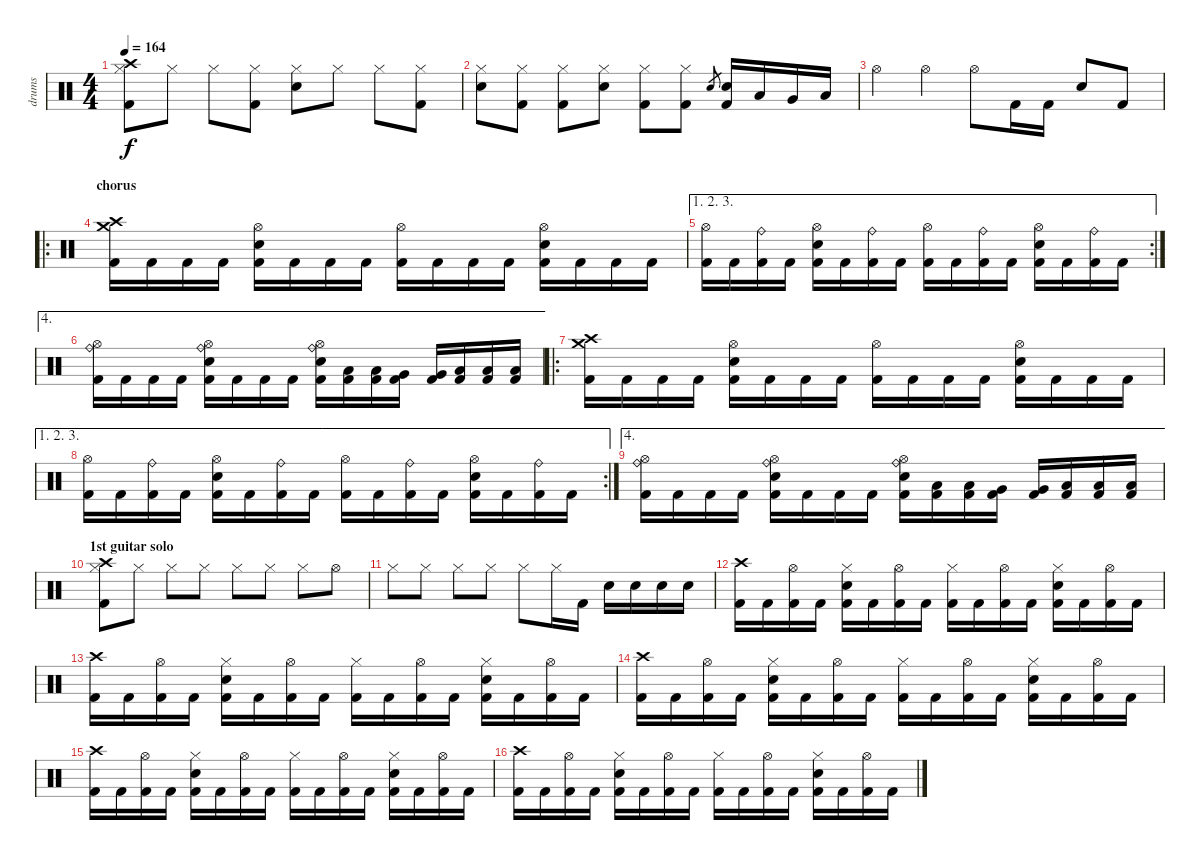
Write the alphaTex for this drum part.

\track ("drums" "drums") {instrument percussion}
\staff {score}
\articulation defaults
\ts (4 4)
\tempo 164
\clef neutral
\ks c
("Crash high (hit)" "Hi-Hat (closed)" "Kick (hit) 2").8{dy f} "Hi-Hat (closed)".8 "Hi-Hat (closed)".8 ("Hi-Hat (closed)" "Kick (hit) 2").8 ("Hi-Hat (closed)" "Electric Snare (hit)").8 "Hi-Hat (closed)".8 "Hi-Hat (closed)".8 ("Hi-Hat (closed)" "Kick (hit) 2").8 |
("Hi-Hat (closed)" "Electric Snare (hit)").8 ("Hi-Hat (closed)" "Kick (hit) 2").8 ("Hi-Hat (closed)" "Kick (hit) 2").8 ("Hi-Hat (closed)" "Electric Snare (hit)").8 ("Hi-Hat (closed)" "Kick (hit) 2").8 ("Hi-Hat (closed)" "Kick (hit) 2").8 "Electric Snare (hit)".8{gr} ("Electric Snare (hit)" "Kick (hit) 2").16 "Low Tom (hit)".16 "Very Low Tom (hit)".16 "Low Floor Tom (hit)".16 |
"Hi-Hat (open)".4 "Hi-Hat (open)".4 "Hi-Hat (open)".8 "Kick (hit) 2".16 "Kick (hit) 2".16 "Electric Snare (hit)".8 "Kick (hit) 2".8 |
\ro
\section ("" "chorus")
("Crash high (hit)" "Crash medium (hit)" "Kick (hit) 2").16 "Kick (hit) 2".16 "Kick (hit) 2".16 "Kick (hit) 2".16 ("Hi-Hat (open)" "Electric Snare (hit)" "Kick (hit) 2").16 "Kick (hit) 2".16 "Kick (hit) 2".16 "Kick (hit) 2".16 ("Hi-Hat (open)" "Kick (hit) 2").16 "Kick (hit) 2".16 "Kick (hit) 2".16 "Kick (hit) 2".16 ("Hi-Hat (open)" "Electric Snare (hit)" "Kick (hit) 2").16 "Kick (hit) 2".16 "Kick (hit) 2".16 "Kick (hit) 2".16 |
\ae (1 2 3)
\rc 2
("Hi-Hat (open)" "Kick (hit) 2").16 "Kick (hit) 2".16 ("Ride (bell)" "Kick (hit) 2").16 "Kick (hit) 2".16 ("Hi-Hat (open)" "Electric Snare (hit)" "Kick (hit) 2").16 "Kick (hit) 2".16 ("Ride (bell)" "Kick (hit) 2").16 "Kick (hit) 2".16 ("Hi-Hat (open)" "Kick (hit) 2").16 "Kick (hit) 2".16 ("Ride (bell)" "Kick (hit) 2").16 "Kick (hit) 2".16 ("Hi-Hat (open)" "Electric Snare (hit)" "Kick (hit) 2").16 "Kick (hit) 2".16 ("Ride (bell)" "Kick (hit) 2").16 "Kick (hit) 2".16 |
\ae 4
("Ride (bell)" "Hi-Hat (open)" "Kick (hit) 2").16 "Kick (hit) 2".16 "Kick (hit) 2".16 "Kick (hit) 2".16 ("Ride (bell)" "Hi-Hat (open)" "Electric Snare (hit)" "Kick (hit) 2").16 "Kick (hit) 2".16 "Kick (hit) 2".16 "Kick (hit) 2".16 ("Ride (bell)" "Hi-Hat (open)" "Electric Snare (hit)" "Kick (hit) 2").16 ("Low Tom (hit)" "Kick (hit) 2").16 ("Low Tom (hit)" "Kick (hit) 2").16 ("Very Low Tom (hit)" "Kick (hit) 2").16 ("Very Low Tom (hit)" "Kick (hit) 2").16 ("Low Floor Tom (hit)" "Kick (hit) 2").16 ("Low Floor Tom (hit)" "Kick (hit) 2").16 ("Low Floor Tom (hit)" "Kick (hit) 2").16 |
\ro
("Crash high (hit)" "Crash medium (hit)" "Kick (hit) 2").16 "Kick (hit) 2".16 "Kick (hit) 2".16 "Kick (hit) 2".16 ("Hi-Hat (open)" "Electric Snare (hit)" "Kick (hit) 2").16 "Kick (hit) 2".16 "Kick (hit) 2".16 "Kick (hit) 2".16 ("Hi-Hat (open)" "Kick (hit) 2").16 "Kick (hit) 2".16 "Kick (hit) 2".16 "Kick (hit) 2".16 ("Hi-Hat (open)" "Electric Snare (hit)" "Kick (hit) 2").16 "Kick (hit) 2".16 "Kick (hit) 2".16 "Kick (hit) 2".16 |
\ae (1 2 3)
\rc 2
("Hi-Hat (open)" "Kick (hit) 2").16 "Kick (hit) 2".16 ("Ride (bell)" "Kick (hit) 2").16 "Kick (hit) 2".16 ("Hi-Hat (open)" "Electric Snare (hit)" "Kick (hit) 2").16 "Kick (hit) 2".16 ("Ride (bell)" "Kick (hit) 2").16 "Kick (hit) 2".16 ("Hi-Hat (open)" "Kick (hit) 2").16 "Kick (hit) 2".16 ("Ride (bell)" "Kick (hit) 2").16 "Kick (hit) 2".16 ("Hi-Hat (open)" "Electric Snare (hit)" "Kick (hit) 2").16 "Kick (hit) 2".16 ("Ride (bell)" "Kick (hit) 2").16 "Kick (hit) 2".16 |
\ae 4
("Ride (bell)" "Hi-Hat (open)" "Kick (hit) 2").16 "Kick (hit) 2".16 "Kick (hit) 2".16 "Kick (hit) 2".16 ("Ride (bell)" "Hi-Hat (open)" "Electric Snare (hit)" "Kick (hit) 2").16 "Kick (hit) 2".16 "Kick (hit) 2".16 "Kick (hit) 2".16 ("Ride (bell)" "Hi-Hat (open)" "Electric Snare (hit)" "Kick (hit) 2").16 ("Low Tom (hit)" "Kick (hit) 2").16 ("Low Tom (hit)" "Kick (hit) 2").16 ("Very Low Tom (hit)" "Kick (hit) 2").16 ("Very Low Tom (hit)" "Kick (hit) 2").16 ("Low Floor Tom (hit)" "Kick (hit) 2").16 ("Low Floor Tom (hit)" "Kick (hit) 2").16 ("Low Floor Tom (hit)" "Kick (hit) 2").16 |
\section ("" "1st guitar solo")
("Crash high (hit)" "Hi-Hat (closed)" "Kick (hit) 2").8 "Hi-Hat (closed)".8 "Hi-Hat (closed)".8 "Hi-Hat (closed)".8 "Hi-Hat (closed)".8 "Hi-Hat (closed)".8 "Hi-Hat (closed)".8 "Hi-Hat (open)".8 |
"Hi-Hat (closed)".8 "Hi-Hat (closed)".8 "Hi-Hat (closed)".8 "Hi-Hat (closed)".8 "Hi-Hat (closed)".8 "Hi-Hat (closed)".16 "Kick (hit) 2".16 "Electric Snare (hit)".16 "Electric Snare (hit)".16 "Electric Snare (hit)".16 "Electric Snare (hit)".16 |
("Crash high (hit)" "Kick (hit) 2").16 "Kick (hit) 2".16 ("Hi-Hat (open)" "Kick (hit) 2").16 "Kick (hit) 2".16 ("Hi-Hat (closed)" "Electric Snare (hit)" "Kick (hit) 2").16 "Kick (hit) 2".16 ("Hi-Hat (open)" "Kick (hit) 2").16 "Kick (hit) 2".16 ("Hi-Hat (closed)" "Kick (hit) 2").16 "Kick (hit) 2".16 ("Hi-Hat (open)" "Kick (hit) 2").16 "Kick (hit) 2".16 ("Hi-Hat (closed)" "Electric Snare (hit)" "Kick (hit) 2").16 "Kick (hit) 2".16 ("Hi-Hat (open)" "Kick (hit) 2").16 "Kick (hit) 2".16 |
("Crash high (hit)" "Kick (hit) 2").16 "Kick (hit) 2".16 ("Hi-Hat (open)" "Kick (hit) 2").16 "Kick (hit) 2".16 ("Hi-Hat (closed)" "Electric Snare (hit)" "Kick (hit) 2").16 "Kick (hit) 2".16 ("Hi-Hat (open)" "Kick (hit) 2").16 "Kick (hit) 2".16 ("Hi-Hat (closed)" "Kick (hit) 2").16 "Kick (hit) 2".16 ("Hi-Hat (open)" "Kick (hit) 2").16 "Kick (hit) 2".16 ("Hi-Hat (closed)" "Electric Snare (hit)" "Kick (hit) 2").16 "Kick (hit) 2".16 ("Hi-Hat (open)" "Kick (hit) 2").16 "Kick (hit) 2".16 |
("Crash high (hit)" "Kick (hit) 2").16 "Kick (hit) 2".16 ("Hi-Hat (open)" "Kick (hit) 2").16 "Kick (hit) 2".16 ("Hi-Hat (closed)" "Electric Snare (hit)" "Kick (hit) 2").16 "Kick (hit) 2".16 ("Hi-Hat (open)" "Kick (hit) 2").16 "Kick (hit) 2".16 ("Hi-Hat (closed)" "Kick (hit) 2").16 "Kick (hit) 2".16 ("Hi-Hat (open)" "Kick (hit) 2").16 "Kick (hit) 2".16 ("Hi-Hat (closed)" "Electric Snare (hit)" "Kick (hit) 2").16 "Kick (hit) 2".16 ("Hi-Hat (open)" "Kick (hit) 2").16 "Kick (hit) 2".16 |
("Crash high (hit)" "Kick (hit) 2").16 "Kick (hit) 2".16 ("Hi-Hat (open)" "Kick (hit) 2").16 "Kick (hit) 2".16 ("Hi-Hat (closed)" "Electric Snare (hit)" "Kick (hit) 2").16 "Kick (hit) 2".16 ("Hi-Hat (open)" "Kick (hit) 2").16 "Kick (hit) 2".16 ("Hi-Hat (closed)" "Kick (hit) 2").16 "Kick (hit) 2".16 ("Hi-Hat (open)" "Kick (hit) 2").16 "Kick (hit) 2".16 ("Hi-Hat (closed)" "Electric Snare (hit)" "Kick (hit) 2").16 "Kick (hit) 2".16 ("Hi-Hat (open)" "Kick (hit) 2").16 "Kick (hit) 2".16 |
("Crash high (hit)" "Kick (hit) 2").16 "Kick (hit) 2".16 ("Hi-Hat (open)" "Kick (hit) 2").16 "Kick (hit) 2".16 ("Hi-Hat (closed)" "Electric Snare (hit)" "Kick (hit) 2").16 "Kick (hit) 2".16 ("Hi-Hat (open)" "Kick (hit) 2").16 "Kick (hit) 2".16 ("Hi-Hat (closed)" "Kick (hit) 2").16 "Kick (hit) 2".16 ("Hi-Hat (open)" "Kick (hit) 2").16 "Kick (hit) 2".16 ("Hi-Hat (closed)" "Electric Snare (hit)" "Kick (hit) 2").16 "Kick (hit) 2".16 ("Hi-Hat (open)" "Kick (hit) 2").16 "Kick (hit) 2".16
